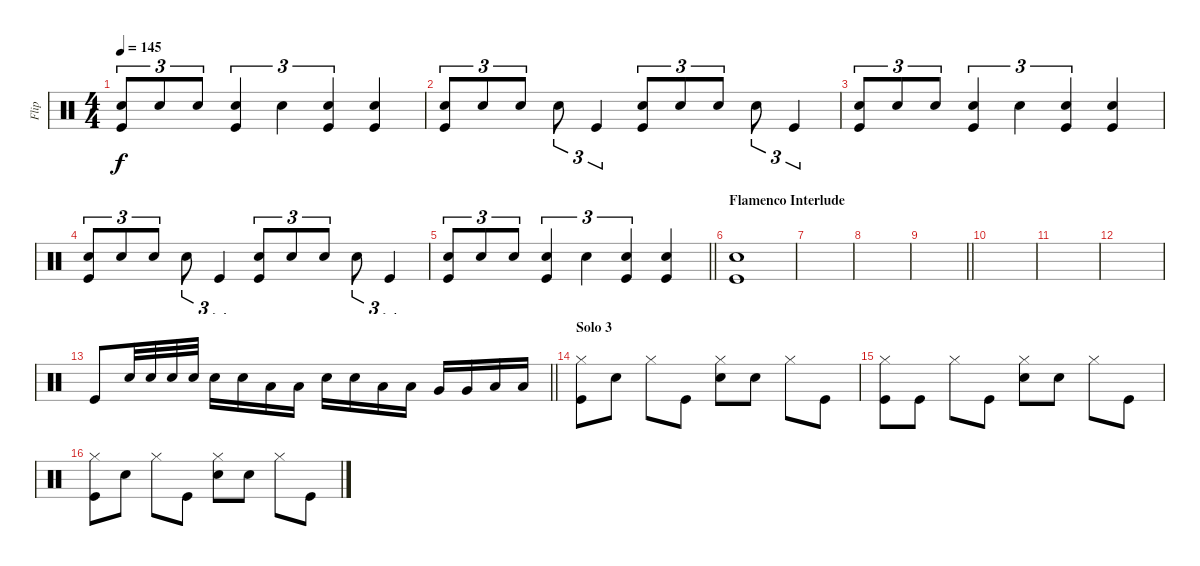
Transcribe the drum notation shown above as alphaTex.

\track ("Flip" "Flip") {instrument percussion}
\staff {score}
\articulation defaults
\ts (4 4)
\tempo 145
\clef neutral
\ks c
("Snare (hit) 2" "Kick (hit)").8{tu (3 2) dy f} "Snare (hit) 2".8{tu (3 2)} "Snare (hit) 2".8{tu (3 2)} ("Snare (hit) 2" "Kick (hit)").4{tu (3 2)} "Snare (hit) 2".4{tu (3 2)} ("Snare (hit) 2" "Kick (hit)").4{tu (3 2)} ("Snare (hit) 2" "Kick (hit)").4 |
("Snare (hit) 2" "Kick (hit)").8{tu (3 2)} "Snare (hit) 2".8{tu (3 2)} "Snare (hit) 2".8{tu (3 2)} "Snare (hit) 2".8{tu (3 2)} "Kick (hit)".4{tu (3 2)} ("Snare (hit) 2" "Kick (hit)").8{tu (3 2)} "Snare (hit) 2".8{tu (3 2)} "Snare (hit) 2".8{tu (3 2)} "Snare (hit) 2".8{tu (3 2)} "Kick (hit)".4{tu (3 2)} |
("Snare (hit) 2" "Kick (hit)").8{tu (3 2)} "Snare (hit) 2".8{tu (3 2)} "Snare (hit) 2".8{tu (3 2)} ("Snare (hit) 2" "Kick (hit)").4{tu (3 2)} "Snare (hit) 2".4{tu (3 2)} ("Snare (hit) 2" "Kick (hit)").4{tu (3 2)} ("Snare (hit) 2" "Kick (hit)").4 |
("Snare (hit) 2" "Kick (hit)").8{tu (3 2)} "Snare (hit) 2".8{tu (3 2)} "Snare (hit) 2".8{tu (3 2)} "Snare (hit) 2".8{tu (3 2)} "Kick (hit)".4{tu (3 2)} ("Snare (hit) 2" "Kick (hit)").8{tu (3 2)} "Snare (hit) 2".8{tu (3 2)} "Snare (hit) 2".8{tu (3 2)} "Snare (hit) 2".8{tu (3 2)} "Kick (hit)".4{tu (3 2)} |
\barLineRight lightlight
("Snare (hit) 2" "Kick (hit)").8{tu (3 2)} "Snare (hit) 2".8{tu (3 2)} "Snare (hit) 2".8{tu (3 2)} ("Snare (hit) 2" "Kick (hit)").4{tu (3 2)} "Snare (hit) 2".4{tu (3 2)} ("Snare (hit) 2" "Kick (hit)").4{tu (3 2)} ("Snare (hit) 2" "Kick (hit)").4 |
\section ("" "Flamenco Interlude")
("Snare (hit) 2" "Kick (hit)").1 |
|
|
\barLineRight lightlight
|
|
|
|
\barLineRight lightlight "Kick (hit)".8 "Snare (hit) 2".32 "Snare (hit) 2".32 "Snare (hit) 2".32 "Snare (hit) 2".32 "Snare (hit) 2".16 "Snare (hit) 2".16 "Low Tom (hit)".16 "Low Tom (hit)".16 "Snare (hit) 2".16 "Snare (hit) 2".16 "Low Tom (hit)".16 "Low Tom (hit)".16 "Very Low Tom (hit)".16 "Very Low Tom (hit)".16 "Low Floor Tom (hit)".16 "Low Floor Tom (hit)".16
|
\section ("" "Solo 3")
("Hi-Hat (closed)" "Kick (hit)").8 "Snare (hit) 2".8 "Hi-Hat (closed)".8 "Kick (hit)".8 ("Hi-Hat (closed)" "Snare (hit) 2").8 "Snare (hit) 2".8 "Hi-Hat (closed)".8 "Kick (hit)".8 |
("Hi-Hat (closed)" "Kick (hit)").8 "Kick (hit)".8 "Hi-Hat (closed)".8 "Kick (hit)".8 ("Hi-Hat (closed)" "Snare (hit) 2").8 "Snare (hit) 2".8 "Hi-Hat (closed)".8 "Kick (hit)".8 |
("Hi-Hat (closed)" "Kick (hit)").8 "Snare (hit) 2".8 "Hi-Hat (closed)".8 "Kick (hit)".8 ("Hi-Hat (closed)" "Snare (hit) 2").8 "Snare (hit) 2".8 "Hi-Hat (closed)".8 "Kick (hit)".8
